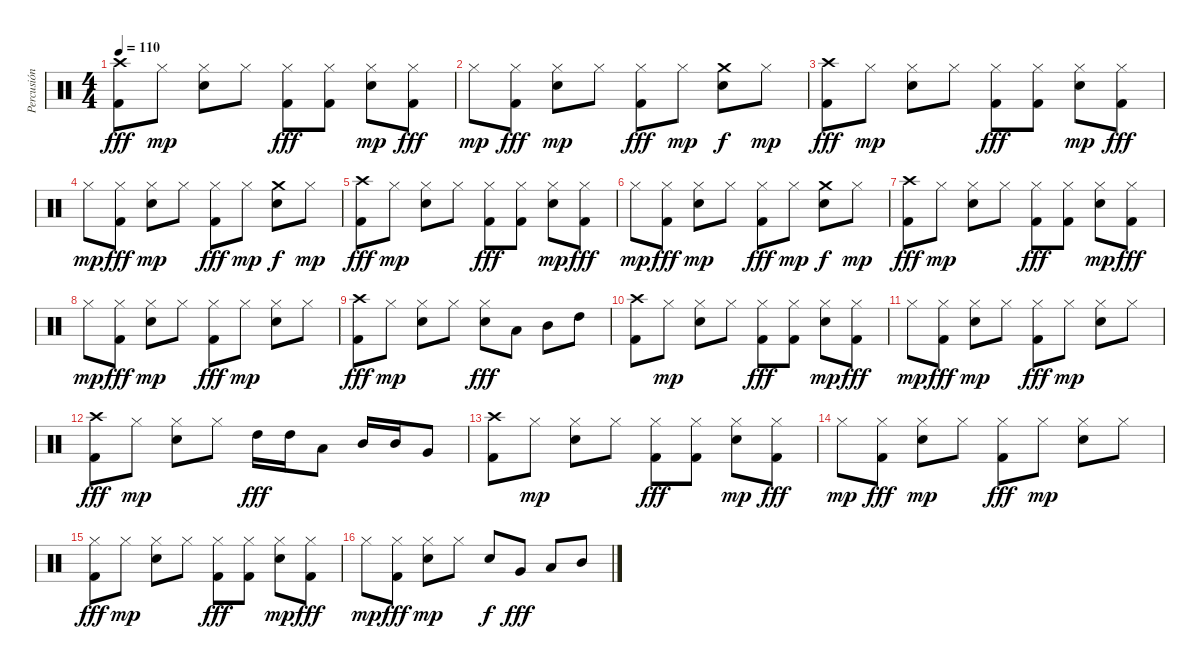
\track ("Percusión" "Percusión") {instrument percussion}
\staff {score}
\articulation defaults
\ts (4 4)
\tempo 110
\clef neutral
\ks c
("Crash high (hit)" "Kick (hit) 2").8{dy fff} "Hi-Hat (closed)".8{dy mp} ("Hi-Hat (closed)" "Snare (hit) 2").8 "Hi-Hat (closed)".8 ("Hi-Hat (closed)" "Kick (hit) 2").8{dy fff} ("Hi-Hat (closed)" "Kick (hit) 2").8 ("Hi-Hat (closed)" "Snare (hit) 2").8{dy mp} ("Hi-Hat (closed)" "Kick (hit) 2").8{dy fff} |
"Hi-Hat (closed)".8{dy mp} ("Hi-Hat (closed)" "Kick (hit) 2").8{dy fff} ("Hi-Hat (closed)" "Snare (hit) 2").8{dy mp} "Hi-Hat (closed)".8 ("Hi-Hat (closed)" "Kick (hit) 2").8{dy fff} "Hi-Hat (closed)".8{dy mp} ("Crash medium (hit)" "Snare (hit) 2").8{dy f} "Hi-Hat (closed)".8{dy mp} |
("Crash high (hit)" "Kick (hit) 2").8{dy fff} "Hi-Hat (closed)".8{dy mp} ("Hi-Hat (closed)" "Snare (hit) 2").8 "Hi-Hat (closed)".8 ("Hi-Hat (closed)" "Kick (hit) 2").8{dy fff} ("Hi-Hat (closed)" "Kick (hit) 2").8 ("Hi-Hat (closed)" "Snare (hit) 2").8{dy mp} ("Hi-Hat (closed)" "Kick (hit) 2").8{dy fff} |
"Hi-Hat (closed)".8{dy mp} ("Hi-Hat (closed)" "Kick (hit) 2").8{dy fff} ("Hi-Hat (closed)" "Snare (hit) 2").8{dy mp} "Hi-Hat (closed)".8 ("Hi-Hat (closed)" "Kick (hit) 2").8{dy fff} "Hi-Hat (closed)".8{dy mp} ("Crash medium (hit)" "Snare (hit) 2").8{dy f} "Hi-Hat (closed)".8{dy mp} |
("Crash high (hit)" "Kick (hit) 2").8{dy fff} "Hi-Hat (closed)".8{dy mp} ("Hi-Hat (closed)" "Snare (hit) 2").8 "Hi-Hat (closed)".8 ("Hi-Hat (closed)" "Kick (hit) 2").8{dy fff} ("Hi-Hat (closed)" "Kick (hit) 2").8 ("Hi-Hat (closed)" "Snare (hit) 2").8{dy mp} ("Hi-Hat (closed)" "Kick (hit) 2").8{dy fff} |
"Hi-Hat (closed)".8{dy mp} ("Hi-Hat (closed)" "Kick (hit) 2").8{dy fff} ("Hi-Hat (closed)" "Snare (hit) 2").8{dy mp} "Hi-Hat (closed)".8 ("Hi-Hat (closed)" "Kick (hit) 2").8{dy fff} "Hi-Hat (closed)".8{dy mp} ("Crash medium (hit)" "Snare (hit) 2").8{dy f} "Hi-Hat (closed)".8{dy mp} |
("Crash high (hit)" "Kick (hit) 2").8{dy fff} "Hi-Hat (closed)".8{dy mp} ("Hi-Hat (closed)" "Snare (hit) 2").8 "Hi-Hat (closed)".8 ("Hi-Hat (closed)" "Kick (hit) 2").8{dy fff} ("Hi-Hat (closed)" "Kick (hit) 2").8 ("Hi-Hat (closed)" "Snare (hit) 2").8{dy mp} ("Hi-Hat (closed)" "Kick (hit) 2").8{dy fff} |
"Hi-Hat (closed)".8{dy mp} ("Hi-Hat (closed)" "Kick (hit) 2").8{dy fff} ("Hi-Hat (closed)" "Snare (hit) 2").8{dy mp} "Hi-Hat (closed)".8 ("Hi-Hat (closed)" "Kick (hit) 2").8{dy fff} "Hi-Hat (closed)".8{dy mp} ("Hi-Hat (closed)" "Snare (hit) 2").8 "Hi-Hat (closed)".8 |
("Crash high (hit)" "Kick (hit) 2").8{dy fff} "Hi-Hat (closed)".8{dy mp} ("Hi-Hat (closed)" "Snare (hit) 2").8 "Hi-Hat (closed)".8 ("Hi-Hat (closed)" "Snare (hit) 2").8{dy fff} "Low Tom (hit)".8 "Mid Tom (hit)".8 "High Tom (hit)".8 |
("Crash high (hit)" "Kick (hit) 2").8 "Hi-Hat (closed)".8{dy mp} ("Hi-Hat (closed)" "Snare (hit) 2").8 "Hi-Hat (closed)".8 ("Hi-Hat (closed)" "Kick (hit) 2").8{dy fff} ("Hi-Hat (closed)" "Kick (hit) 2").8 ("Hi-Hat (closed)" "Snare (hit) 2").8{dy mp} ("Hi-Hat (closed)" "Kick (hit) 2").8{dy fff} |
"Hi-Hat (closed)".8{dy mp} ("Hi-Hat (closed)" "Kick (hit) 2").8{dy fff} ("Hi-Hat (closed)" "Snare (hit) 2").8{dy mp} "Hi-Hat (closed)".8 ("Hi-Hat (closed)" "Kick (hit) 2").8{dy fff} "Hi-Hat (closed)".8{dy mp} ("Hi-Hat (closed)" "Snare (hit) 2").8 "Hi-Hat (closed)".8 |
("Crash high (hit)" "Kick (hit) 2").8{dy fff} "Hi-Hat (closed)".8{dy mp} ("Hi-Hat (closed)" "Snare (hit) 2").8 "Hi-Hat (closed)".8 "High Tom (hit)".16{dy fff} "High Tom (hit)".16 "Low Tom (hit)".8 "Mid Tom (hit)".16 "Mid Tom (hit)".16 "Very Low Tom (hit)".8 |
("Crash high (hit)" "Kick (hit) 2").8 "Hi-Hat (closed)".8{dy mp} ("Hi-Hat (closed)" "Snare (hit) 2").8 "Hi-Hat (closed)".8 ("Hi-Hat (closed)" "Kick (hit) 2").8{dy fff} ("Hi-Hat (closed)" "Kick (hit) 2").8 ("Hi-Hat (closed)" "Snare (hit) 2").8{dy mp} ("Hi-Hat (closed)" "Kick (hit) 2").8{dy fff} |
"Hi-Hat (closed)".8{dy mp} ("Hi-Hat (closed)" "Kick (hit) 2").8{dy fff} ("Hi-Hat (closed)" "Snare (hit) 2").8{dy mp} "Hi-Hat (closed)".8 ("Hi-Hat (closed)" "Kick (hit) 2").8{dy fff} "Hi-Hat (closed)".8{dy mp} ("Hi-Hat (closed)" "Snare (hit) 2").8 "Hi-Hat (closed)".8 |
("Hi-Hat (closed)" "Kick (hit) 2").8{dy fff} "Hi-Hat (closed)".8{dy mp} ("Hi-Hat (closed)" "Snare (hit) 2").8 "Hi-Hat (closed)".8 ("Hi-Hat (closed)" "Kick (hit) 2").8{dy fff} ("Hi-Hat (closed)" "Kick (hit) 2").8 ("Hi-Hat (closed)" "Snare (hit) 2").8{dy mp} ("Hi-Hat (closed)" "Kick (hit) 2").8{dy fff} |
"Hi-Hat (closed)".8{dy mp} ("Hi-Hat (closed)" "Kick (hit) 2").8{dy fff} ("Hi-Hat (closed)" "Snare (hit) 2").8{dy mp} "Hi-Hat (closed)".8 "Snare (hit) 2".8{dy f} "Very Low Tom (hit)".8{dy fff} "Low Tom (hit)".8 "Mid Tom (hit)".8
